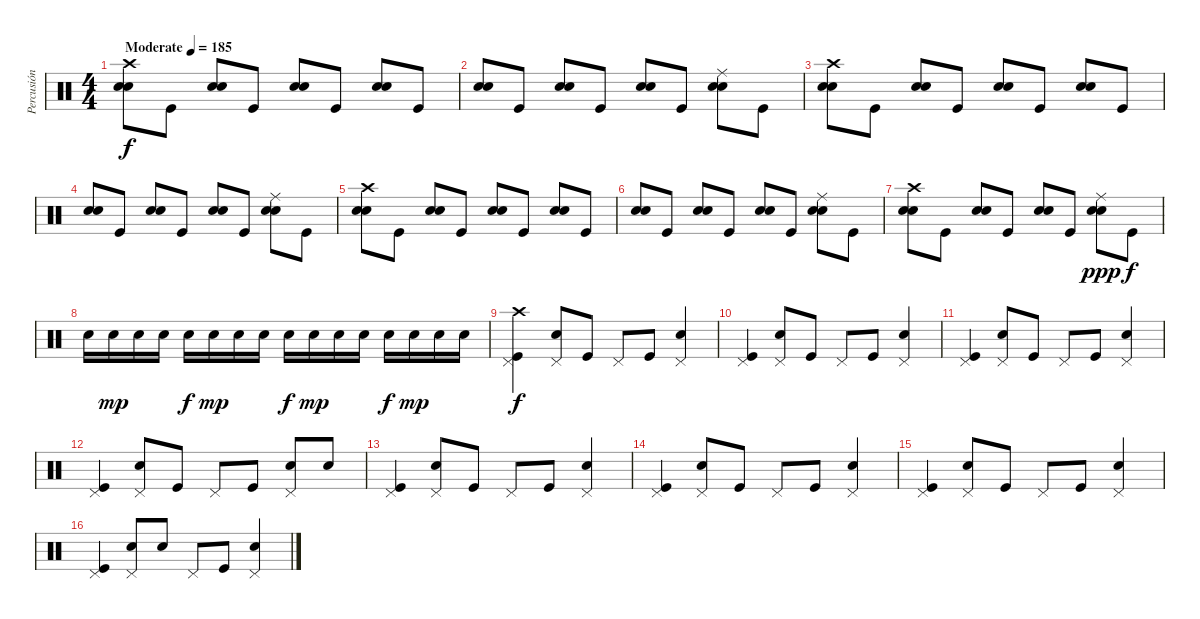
\track ("Percusión" "Percusión") {instrument percussion}
\staff {score}
\articulation defaults
\ts (4 4)
\tempo (185 "Moderate")
\clef neutral
\ks c
("Snare (hit) 2" "Snare (hit) 2" "Crash high (hit)").8{dy f} "Kick (hit)".8 ("Snare (hit) 2" "Snare (hit) 2").8 "Kick (hit)".8 ("Snare (hit) 2" "Snare (hit) 2").8 "Kick (hit)".8 ("Snare (hit) 2" "Snare (hit) 2").8 "Kick (hit)".8 |
("Snare (hit) 2" "Snare (hit) 2").8 "Kick (hit)".8 ("Snare (hit) 2" "Snare (hit) 2").8 "Kick (hit)".8 ("Snare (hit) 2" "Snare (hit) 2").8 "Kick (hit)".8 ("Snare (hit) 2" "Snare (hit) 2" "Ride (middle)").8 "Kick (hit)".8 |
("Snare (hit) 2" "Snare (hit) 2" "Crash high (hit)").8 "Kick (hit)".8 ("Snare (hit) 2" "Snare (hit) 2").8 "Kick (hit)".8 ("Snare (hit) 2" "Snare (hit) 2").8 "Kick (hit)".8 ("Snare (hit) 2" "Snare (hit) 2").8 "Kick (hit)".8 |
("Snare (hit) 2" "Snare (hit) 2").8 "Kick (hit)".8 ("Snare (hit) 2" "Snare (hit) 2").8 "Kick (hit)".8 ("Snare (hit) 2" "Snare (hit) 2").8 "Kick (hit)".8 ("Snare (hit) 2" "Snare (hit) 2" "Ride (middle)").8 "Kick (hit)".8 |
("Snare (hit) 2" "Snare (hit) 2" "Crash high (hit)").8 "Kick (hit)".8 ("Snare (hit) 2" "Snare (hit) 2").8 "Kick (hit)".8 ("Snare (hit) 2" "Snare (hit) 2").8 "Kick (hit)".8 ("Snare (hit) 2" "Snare (hit) 2").8 "Kick (hit)".8 |
("Snare (hit) 2" "Snare (hit) 2").8 "Kick (hit)".8 ("Snare (hit) 2" "Snare (hit) 2").8 "Kick (hit)".8 ("Snare (hit) 2" "Snare (hit) 2").8 "Kick (hit)".8 ("Snare (hit) 2" "Snare (hit) 2" "Ride (middle)").8 "Kick (hit)".8 |
("Snare (hit) 2" "Snare (hit) 2" "Crash high (hit)").8 "Kick (hit)".8 ("Snare (hit) 2" "Snare (hit) 2").8 "Kick (hit)".8 ("Snare (hit) 2" "Snare (hit) 2").8 "Kick (hit)".8 ("Snare (hit) 2" "Snare (hit) 2" "Ride (middle)").8{dy ppp} "Kick (hit)".8{dy f} |
"Snare (hit) 2".16 "Snare (hit) 2".16{dy mp} "Snare (hit) 2".16 "Snare (hit) 2".16 "Snare (hit) 2".16{dy f} "Snare (hit) 2".16{dy mp} "Snare (hit) 2".16 "Snare (hit) 2".16 "Snare (hit) 2".16{dy f} "Snare (hit) 2".16{dy mp} "Snare (hit) 2".16 "Snare (hit) 2".16 "Snare (hit) 2".16{dy f} "Snare (hit) 2".16{dy mp} "Snare (hit) 2".16 "Snare (hit) 2".16 |
("Kick (hit)" "Pedal Hi-Hat (hit)" "Crash high (hit)").4{dy f} ("Snare (hit) 2" "Pedal Hi-Hat (hit)").8 "Kick (hit)".8 "Pedal Hi-Hat (hit)".8 "Kick (hit)".8 ("Snare (hit) 2" "Pedal Hi-Hat (hit)").4 |
("Kick (hit)" "Pedal Hi-Hat (hit)").4 ("Snare (hit) 2" "Pedal Hi-Hat (hit)").8 "Kick (hit)".8 "Pedal Hi-Hat (hit)".8 "Kick (hit)".8 ("Snare (hit) 2" "Pedal Hi-Hat (hit)").4 |
("Kick (hit)" "Pedal Hi-Hat (hit)").4 ("Snare (hit) 2" "Pedal Hi-Hat (hit)").8 "Kick (hit)".8 "Pedal Hi-Hat (hit)".8 "Kick (hit)".8 ("Snare (hit) 2" "Pedal Hi-Hat (hit)").4 |
("Kick (hit)" "Pedal Hi-Hat (hit)").4 ("Snare (hit) 2" "Pedal Hi-Hat (hit)").8 "Kick (hit)".8 "Pedal Hi-Hat (hit)".8 "Kick (hit)".8 ("Snare (hit) 2" "Pedal Hi-Hat (hit)").8 "Snare (hit) 2".8 |
("Kick (hit)" "Pedal Hi-Hat (hit)").4 ("Snare (hit) 2" "Pedal Hi-Hat (hit)").8 "Kick (hit)".8 "Pedal Hi-Hat (hit)".8 "Kick (hit)".8 ("Snare (hit) 2" "Pedal Hi-Hat (hit)").4 |
("Kick (hit)" "Pedal Hi-Hat (hit)").4 ("Snare (hit) 2" "Pedal Hi-Hat (hit)").8 "Kick (hit)".8 "Pedal Hi-Hat (hit)".8 "Kick (hit)".8 ("Snare (hit) 2" "Pedal Hi-Hat (hit)").4 |
("Kick (hit)" "Pedal Hi-Hat (hit)").4 ("Snare (hit) 2" "Pedal Hi-Hat (hit)").8 "Kick (hit)".8 "Pedal Hi-Hat (hit)".8 "Kick (hit)".8 ("Snare (hit) 2" "Pedal Hi-Hat (hit)").4 |
("Kick (hit)" "Pedal Hi-Hat (hit)").4 ("Snare (hit) 2" "Pedal Hi-Hat (hit)").8 "Snare (hit) 2".8 "Pedal Hi-Hat (hit)".8 "Kick (hit)".8 ("Snare (hit) 2" "Pedal Hi-Hat (hit)").4
